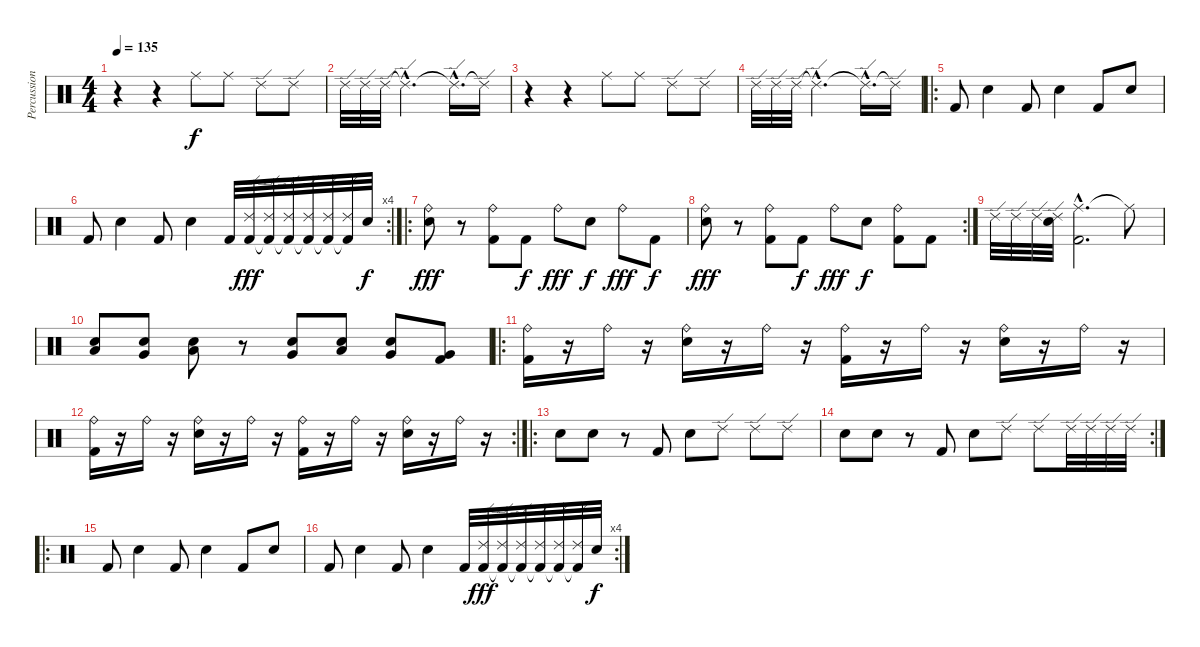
\track ("Percussion" "Percussion") {instrument percussion}
\staff {score}
\articulation defaults
\ts (4 4)
\tempo 135
\clef neutral
\ks c
r.4{dy f} r.4 "Ride (middle)".8 "Ride (middle)".8 "Ride (edge) 2".8 "Ride (edge) 2".8 |
"Ride (edge) 2".32 "Ride (edge) 2".32 "Ride (edge) 2".32 "Ride (edge) 2"{hac t}.2{d} "Ride (edge) 2"{hac t}.16{d} "Ride (edge) 2"{t}.16 |
r.4 r.4 "Ride (middle)".8 "Ride (middle)".8 "Ride (edge) 2".8 "Ride (edge) 2".8 |
"Ride (edge) 2".32 "Ride (edge) 2".32 "Ride (edge) 2".32 "Ride (edge) 2"{hac t}.2{d} "Ride (edge) 2"{hac t}.16{d} "Ride (edge) 2"{t}.16 |
\ro "Kick (hit) 2".8 "Snare (hit) 2".4 "Kick (hit) 2".8 "Snare (hit) 2".4 "Kick (hit) 2".8 "Snare (hit) 2".8
|
\rc 4 "Kick (hit) 2".8 "Snare (hit) 2".4 "Kick (hit) 2".8 "Snare (hit) 2".4 "Kick (hit) 2".32
("Ride (edge) 2" "Kick (hit) 2").32{dy fff} ("Ride (edge) 2" "Kick (hit) 2"{t}).32 ("Ride (edge) 2" "Kick (hit) 2"{t}).32 ("Ride (edge) 2" "Kick (hit) 2"{t}).32 ("Ride (edge) 2" "Kick (hit) 2"{t}).32 ("Ride (edge) 2" "Kick (hit) 2"{t}).32 "Snare (hit) 2".32{dy f} |
\ro
("Ride (bell)" "Snare (hit) 2").8{dy fff} r.8 ("Ride (bell)" "Kick (hit) 2").8 "Kick (hit) 2".8{dy f} "Ride (bell)".8{dy fff} "Snare (hit) 2".8{dy f} "Ride (bell)".8{dy fff} "Kick (hit) 2".8{dy f} |
\rc 2
("Ride (bell)" "Snare (hit) 2").8{dy fff} r.8 ("Ride (bell)" "Kick (hit) 2").8 "Kick (hit) 2".8{dy f} "Ride (bell)".8{dy fff} "Snare (hit) 2".8{dy f} ("Ride (bell)" "Kick (hit) 2").8 "Kick (hit) 2".8 |
"Ride (edge) 2".32 "Ride (edge) 2".32 "Ride (edge) 2".32 ("Ride (edge) 2" "Snare (hit) 2").32 ("Ride (middle)"{hac} "Kick (hit) 2"{hac}).2{d} "Ride (middle)"{t}.8 |
("Low Floor Tom (hit)" "Snare (hit) 2").8 ("Very Low Tom (hit)" "Snare (hit) 2").8 ("Low Floor Tom (hit)" "Snare (hit) 2").8 r.8 ("Very Low Tom (hit)" "Snare (hit) 2").8 ("Low Floor Tom (hit)" "Snare (hit) 2").8 ("Very Low Tom (hit)" "Snare (hit) 2").8 ("Very Low Tom (hit)" "Kick (hit) 2").8 |
\ro
("Ride (bell)" "Kick (hit) 2").16 r.16 "Ride (bell)".16 r.16 ("Ride (bell)" "Snare (hit) 2").16 r.16 "Ride (bell)".16 r.16 ("Ride (bell)" "Kick (hit) 2").16 r.16 "Ride (bell)".16 r.16 ("Ride (bell)" "Snare (hit) 2").16 r.16 "Ride (bell)".16 r.16 |
\rc 2
("Ride (bell)" "Kick (hit) 2").16 r.16 "Ride (bell)".16 r.16 ("Ride (bell)" "Snare (hit) 2").16 r.16 "Ride (bell)".16 r.16 ("Ride (bell)" "Kick (hit) 2").16 r.16 "Ride (bell)".16 r.16 ("Ride (bell)" "Snare (hit) 2").16 r.16 "Ride (bell)".16 r.16 |
\ro "Snare (hit) 2".8 "Snare (hit) 2".8
r.8 "Kick (hit) 2".8 "Snare (hit) 2".8 "Ride (edge) 2".8 "Ride (edge) 2".8 "Ride (edge) 2".8 |
\rc 2 "Snare (hit) 2".8 "Snare (hit) 2".8
r.8 "Kick (hit) 2".8 "Snare (hit) 2".8 "Ride (edge) 2".8 "Ride (edge) 2".8 "Ride (edge) 2".32 "Ride (edge) 2".32 "Ride (edge) 2".32 "Ride (edge) 2".32 |
\ro "Kick (hit) 2".8 "Snare (hit) 2".4 "Kick (hit) 2".8 "Snare (hit) 2".4 "Kick (hit) 2".8 "Snare (hit) 2".8
|
\rc 4 "Kick (hit) 2".8 "Snare (hit) 2".4 "Kick (hit) 2".8 "Snare (hit) 2".4 "Kick (hit) 2".32
("Ride (edge) 2" "Kick (hit) 2").32{dy fff} ("Ride (edge) 2" "Kick (hit) 2"{t}).32 ("Ride (edge) 2" "Kick (hit) 2"{t}).32 ("Ride (edge) 2" "Kick (hit) 2"{t}).32 ("Ride (edge) 2" "Kick (hit) 2"{t}).32 ("Ride (edge) 2" "Kick (hit) 2"{t}).32 "Snare (hit) 2".32{dy f}
